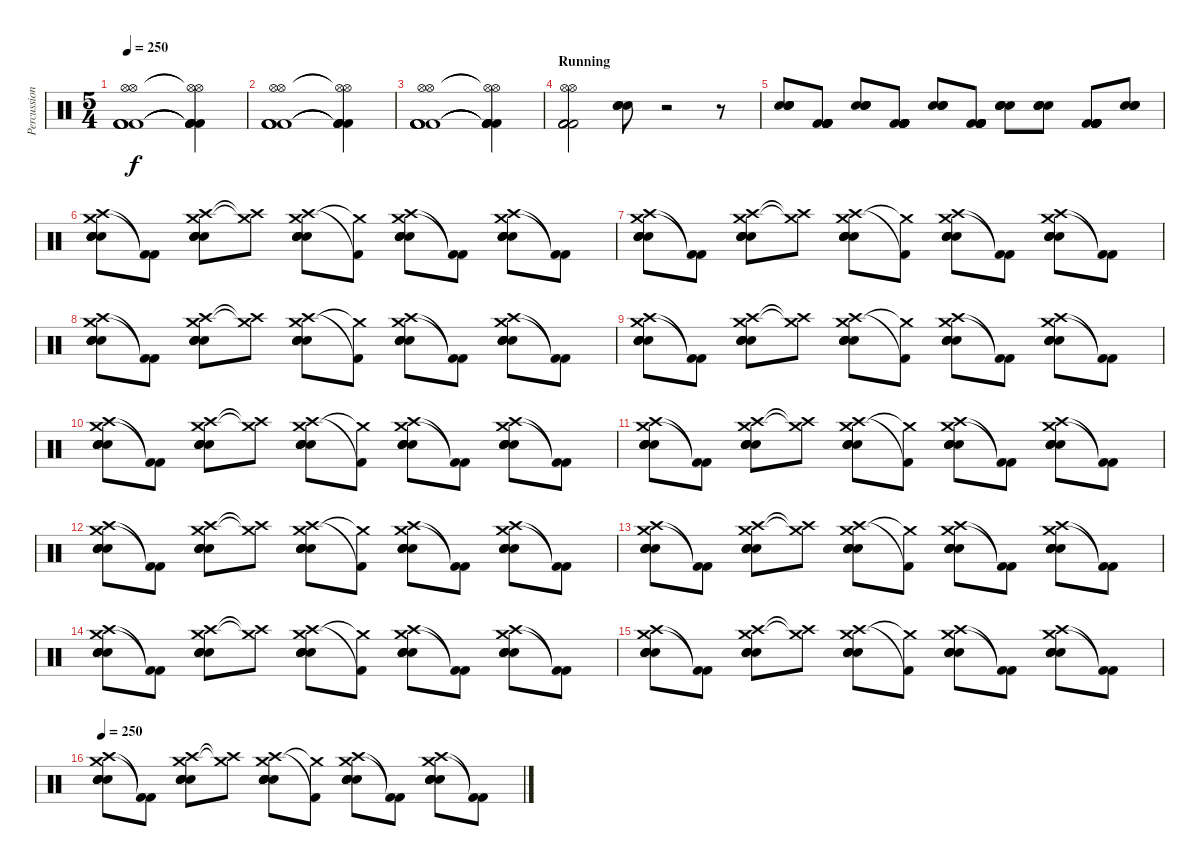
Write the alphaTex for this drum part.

\track ("Percussion" "Percussion") {instrument percussion}
\staff {score}
\articulation defaults
\ts (5 4)
\tempo 250
\clef neutral
\ks c
("Hi-Hat (open)" "Hi-Hat (open)" "Kick (hit) 2" "Kick (hit) 2" "Kick (hit) 2" "Kick (hit) 2").1{dy f} ("Hi-Hat (open)"{t} "Hi-Hat (open)"{t} "Kick (hit) 2"{t} "Kick (hit) 2"{t} "Kick (hit) 2"{t} "Kick (hit) 2"{t}).4 |
("Hi-Hat (open)" "Hi-Hat (open)" "Kick (hit) 2" "Kick (hit) 2" "Kick (hit) 2" "Kick (hit) 2").1 ("Hi-Hat (open)"{t} "Hi-Hat (open)"{t} "Kick (hit) 2"{t} "Kick (hit) 2"{t} "Kick (hit) 2"{t} "Kick (hit) 2"{t}).4 |
("Hi-Hat (open)" "Hi-Hat (open)" "Kick (hit) 2" "Kick (hit) 2" "Kick (hit) 2" "Kick (hit) 2").1 ("Hi-Hat (open)"{t} "Hi-Hat (open)"{t} "Kick (hit) 2"{t} "Kick (hit) 2"{t} "Kick (hit) 2"{t} "Kick (hit) 2"{t}).4 |
\section ("" "Running")
("Hi-Hat (open)" "Hi-Hat (open)" "Kick (hit) 2" "Kick (hit) 2" "Kick (hit) 2" "Kick (hit) 2").2 ("Snare (hit) 2" "Snare (hit) 2" "Snare (hit) 2" "Snare (hit) 2").8 r.2 r.8 |
("Snare (hit) 2" "Snare (hit) 2" "Snare (hit) 2" "Snare (hit) 2").8 ("Kick (hit) 2" "Kick (hit) 2" "Kick (hit) 2" "Kick (hit) 2" "Kick (hit) 2" "Kick (hit) 2").8 ("Snare (hit) 2" "Snare (hit) 2" "Snare (hit) 2" "Snare (hit) 2").8 ("Kick (hit) 2" "Kick (hit) 2" "Kick (hit) 2" "Kick (hit) 2" "Kick (hit) 2" "Kick (hit) 2").8 ("Snare (hit) 2" "Snare (hit) 2" "Snare (hit) 2" "Snare (hit) 2").8 ("Kick (hit) 2" "Kick (hit) 2" "Kick (hit) 2" "Kick (hit) 2" "Kick (hit) 2" "Kick (hit) 2").8 ("Snare (hit) 2" "Snare (hit) 2" "Snare (hit) 2" "Snare (hit) 2").8 ("Snare (hit) 2" "Snare (hit) 2" "Snare (hit) 2" "Snare (hit) 2").8 ("Kick (hit) 2" "Kick (hit) 2" "Kick (hit) 2" "Kick (hit) 2" "Kick (hit) 2" "Kick (hit) 2").8 ("Snare (hit) 2" "Snare (hit) 2" "Snare (hit) 2" "Snare (hit) 2").8 |
("Crash high (hit)" "Crash medium (hit)" "Snare (hit) 2" "Snare (hit) 2" "Snare (hit) 2" "Snare (hit) 2").8 ("Kick (hit) 2"{t} "Kick (hit) 2"{t}).8 ("Crash high (hit)" "Crash medium (hit)" "Snare (hit) 2" "Snare (hit) 2" "Snare (hit) 2" "Snare (hit) 2").8 ("Crash high (hit)"{t} "Crash medium (hit)"{t}).8 ("Crash high (hit)" "Crash medium (hit)" "Snare (hit) 2" "Snare (hit) 2" "Snare (hit) 2" "Snare (hit) 2").8 ("Kick (hit) 2"{t} "Crash medium (hit)"{t}).8 ("Crash high (hit)" "Crash medium (hit)" "Snare (hit) 2" "Snare (hit) 2" "Snare (hit) 2" "Snare (hit) 2").8 ("Kick (hit) 2"{t} "Kick (hit) 2"{t}).8 ("Crash high (hit)" "Crash medium (hit)" "Snare (hit) 2" "Snare (hit) 2" "Snare (hit) 2" "Snare (hit) 2").8 ("Kick (hit) 2"{t} "Kick (hit) 2"{t}).8 |
("Crash high (hit)" "Crash medium (hit)" "Snare (hit) 2" "Snare (hit) 2" "Snare (hit) 2" "Snare (hit) 2").8 ("Kick (hit) 2"{t} "Kick (hit) 2"{t}).8 ("Crash high (hit)" "Crash medium (hit)" "Snare (hit) 2" "Snare (hit) 2" "Snare (hit) 2" "Snare (hit) 2").8 ("Crash high (hit)"{t} "Crash medium (hit)"{t}).8 ("Crash high (hit)" "Crash medium (hit)" "Snare (hit) 2" "Snare (hit) 2" "Snare (hit) 2" "Snare (hit) 2").8 ("Kick (hit) 2"{t} "Crash medium (hit)"{t}).8 ("Crash high (hit)" "Crash medium (hit)" "Snare (hit) 2" "Snare (hit) 2" "Snare (hit) 2" "Snare (hit) 2").8 ("Kick (hit) 2"{t} "Kick (hit) 2"{t}).8 ("Crash high (hit)" "Crash medium (hit)" "Snare (hit) 2" "Snare (hit) 2" "Snare (hit) 2" "Snare (hit) 2").8 ("Kick (hit) 2"{t} "Kick (hit) 2"{t}).8 |
("Crash high (hit)" "Crash medium (hit)" "Snare (hit) 2" "Snare (hit) 2" "Snare (hit) 2" "Snare (hit) 2").8 ("Kick (hit) 2"{t} "Kick (hit) 2"{t}).8 ("Crash high (hit)" "Crash medium (hit)" "Snare (hit) 2" "Snare (hit) 2" "Snare (hit) 2" "Snare (hit) 2").8 ("Crash high (hit)"{t} "Crash medium (hit)"{t}).8 ("Crash high (hit)" "Crash medium (hit)" "Snare (hit) 2" "Snare (hit) 2" "Snare (hit) 2" "Snare (hit) 2").8 ("Kick (hit) 2"{t} "Crash medium (hit)"{t}).8 ("Crash high (hit)" "Crash medium (hit)" "Snare (hit) 2" "Snare (hit) 2" "Snare (hit) 2" "Snare (hit) 2").8 ("Kick (hit) 2"{t} "Kick (hit) 2"{t}).8 ("Crash high (hit)" "Crash medium (hit)" "Snare (hit) 2" "Snare (hit) 2" "Snare (hit) 2" "Snare (hit) 2").8 ("Kick (hit) 2"{t} "Kick (hit) 2"{t}).8 |
("Crash high (hit)" "Crash medium (hit)" "Snare (hit) 2" "Snare (hit) 2" "Snare (hit) 2" "Snare (hit) 2").8 ("Kick (hit) 2"{t} "Kick (hit) 2"{t}).8 ("Crash high (hit)" "Crash medium (hit)" "Snare (hit) 2" "Snare (hit) 2" "Snare (hit) 2" "Snare (hit) 2").8 ("Crash high (hit)"{t} "Crash medium (hit)"{t}).8 ("Crash high (hit)" "Crash medium (hit)" "Snare (hit) 2" "Snare (hit) 2" "Snare (hit) 2" "Snare (hit) 2").8 ("Kick (hit) 2"{t} "Crash medium (hit)"{t}).8 ("Crash high (hit)" "Crash medium (hit)" "Snare (hit) 2" "Snare (hit) 2" "Snare (hit) 2" "Snare (hit) 2").8 ("Kick (hit) 2"{t} "Kick (hit) 2"{t}).8 ("Crash high (hit)" "Crash medium (hit)" "Snare (hit) 2" "Snare (hit) 2" "Snare (hit) 2" "Snare (hit) 2").8 ("Kick (hit) 2"{t} "Kick (hit) 2"{t}).8 |
("Crash high (hit)" "Crash medium (hit)" "Snare (hit) 2" "Snare (hit) 2" "Snare (hit) 2" "Snare (hit) 2").8 ("Kick (hit) 2"{t} "Kick (hit) 2"{t}).8 ("Crash high (hit)" "Crash medium (hit)" "Snare (hit) 2" "Snare (hit) 2" "Snare (hit) 2" "Snare (hit) 2").8 ("Crash high (hit)"{t} "Crash medium (hit)"{t}).8 ("Crash high (hit)" "Crash medium (hit)" "Snare (hit) 2" "Snare (hit) 2" "Snare (hit) 2" "Snare (hit) 2").8 ("Kick (hit) 2"{t} "Crash medium (hit)"{t}).8 ("Crash high (hit)" "Crash medium (hit)" "Snare (hit) 2" "Snare (hit) 2" "Snare (hit) 2" "Snare (hit) 2").8 ("Kick (hit) 2"{t} "Kick (hit) 2"{t}).8 ("Crash high (hit)" "Crash medium (hit)" "Snare (hit) 2" "Snare (hit) 2" "Snare (hit) 2" "Snare (hit) 2").8 ("Kick (hit) 2"{t} "Kick (hit) 2"{t}).8 |
("Crash high (hit)" "Crash medium (hit)" "Snare (hit) 2" "Snare (hit) 2" "Snare (hit) 2" "Snare (hit) 2").8 ("Kick (hit) 2"{t} "Kick (hit) 2"{t}).8 ("Crash high (hit)" "Crash medium (hit)" "Snare (hit) 2" "Snare (hit) 2" "Snare (hit) 2" "Snare (hit) 2").8 ("Crash high (hit)"{t} "Crash medium (hit)"{t}).8 ("Crash high (hit)" "Crash medium (hit)" "Snare (hit) 2" "Snare (hit) 2" "Snare (hit) 2" "Snare (hit) 2").8 ("Kick (hit) 2"{t} "Crash medium (hit)"{t}).8 ("Crash high (hit)" "Crash medium (hit)" "Snare (hit) 2" "Snare (hit) 2" "Snare (hit) 2" "Snare (hit) 2").8 ("Kick (hit) 2"{t} "Kick (hit) 2"{t}).8 ("Crash high (hit)" "Crash medium (hit)" "Snare (hit) 2" "Snare (hit) 2" "Snare (hit) 2" "Snare (hit) 2").8 ("Kick (hit) 2"{t} "Kick (hit) 2"{t}).8 |
("Crash high (hit)" "Crash medium (hit)" "Snare (hit) 2" "Snare (hit) 2" "Snare (hit) 2" "Snare (hit) 2").8 ("Kick (hit) 2"{t} "Kick (hit) 2"{t}).8 ("Crash high (hit)" "Crash medium (hit)" "Snare (hit) 2" "Snare (hit) 2" "Snare (hit) 2" "Snare (hit) 2").8 ("Crash high (hit)"{t} "Crash medium (hit)"{t}).8 ("Crash high (hit)" "Crash medium (hit)" "Snare (hit) 2" "Snare (hit) 2" "Snare (hit) 2" "Snare (hit) 2").8 ("Kick (hit) 2"{t} "Crash medium (hit)"{t}).8 ("Crash high (hit)" "Crash medium (hit)" "Snare (hit) 2" "Snare (hit) 2" "Snare (hit) 2" "Snare (hit) 2").8 ("Kick (hit) 2"{t} "Kick (hit) 2"{t}).8 ("Crash high (hit)" "Crash medium (hit)" "Snare (hit) 2" "Snare (hit) 2" "Snare (hit) 2" "Snare (hit) 2").8 ("Kick (hit) 2"{t} "Kick (hit) 2"{t}).8 |
("Crash high (hit)" "Crash medium (hit)" "Snare (hit) 2" "Snare (hit) 2" "Snare (hit) 2" "Snare (hit) 2").8 ("Kick (hit) 2"{t} "Kick (hit) 2"{t}).8 ("Crash high (hit)" "Crash medium (hit)" "Snare (hit) 2" "Snare (hit) 2" "Snare (hit) 2" "Snare (hit) 2").8 ("Crash high (hit)"{t} "Crash medium (hit)"{t}).8 ("Crash high (hit)" "Crash medium (hit)" "Snare (hit) 2" "Snare (hit) 2" "Snare (hit) 2" "Snare (hit) 2").8 ("Kick (hit) 2"{t} "Crash medium (hit)"{t}).8 ("Crash high (hit)" "Crash medium (hit)" "Snare (hit) 2" "Snare (hit) 2" "Snare (hit) 2" "Snare (hit) 2").8 ("Kick (hit) 2"{t} "Kick (hit) 2"{t}).8 ("Crash high (hit)" "Crash medium (hit)" "Snare (hit) 2" "Snare (hit) 2" "Snare (hit) 2" "Snare (hit) 2").8 ("Kick (hit) 2"{t} "Kick (hit) 2"{t}).8 |
("Crash high (hit)" "Crash medium (hit)" "Snare (hit) 2" "Snare (hit) 2" "Snare (hit) 2" "Snare (hit) 2").8 ("Kick (hit) 2"{t} "Kick (hit) 2"{t}).8 ("Crash high (hit)" "Crash medium (hit)" "Snare (hit) 2" "Snare (hit) 2" "Snare (hit) 2" "Snare (hit) 2").8 ("Crash high (hit)"{t} "Crash medium (hit)"{t}).8 ("Crash high (hit)" "Crash medium (hit)" "Snare (hit) 2" "Snare (hit) 2" "Snare (hit) 2" "Snare (hit) 2").8 ("Kick (hit) 2"{t} "Crash medium (hit)"{t}).8 ("Crash high (hit)" "Crash medium (hit)" "Snare (hit) 2" "Snare (hit) 2" "Snare (hit) 2" "Snare (hit) 2").8 ("Kick (hit) 2"{t} "Kick (hit) 2"{t}).8 ("Crash high (hit)" "Crash medium (hit)" "Snare (hit) 2" "Snare (hit) 2" "Snare (hit) 2" "Snare (hit) 2").8 ("Kick (hit) 2"{t} "Kick (hit) 2"{t}).8 |
("Crash high (hit)" "Crash medium (hit)" "Snare (hit) 2" "Snare (hit) 2" "Snare (hit) 2" "Snare (hit) 2").8 ("Kick (hit) 2"{t} "Kick (hit) 2"{t}).8 ("Crash high (hit)" "Crash medium (hit)" "Snare (hit) 2" "Snare (hit) 2" "Snare (hit) 2" "Snare (hit) 2").8 ("Crash high (hit)"{t} "Crash medium (hit)"{t}).8 ("Crash high (hit)" "Crash medium (hit)" "Snare (hit) 2" "Snare (hit) 2" "Snare (hit) 2" "Snare (hit) 2").8 ("Kick (hit) 2"{t} "Crash medium (hit)"{t}).8 ("Crash high (hit)" "Crash medium (hit)" "Snare (hit) 2" "Snare (hit) 2" "Snare (hit) 2" "Snare (hit) 2").8 ("Kick (hit) 2"{t} "Kick (hit) 2"{t}).8 ("Crash high (hit)" "Crash medium (hit)" "Snare (hit) 2" "Snare (hit) 2" "Snare (hit) 2" "Snare (hit) 2").8 ("Kick (hit) 2"{t} "Kick (hit) 2"{t}).8 |
\tempo 250
("Crash high (hit)" "Crash medium (hit)" "Snare (hit) 2" "Snare (hit) 2" "Snare (hit) 2" "Snare (hit) 2").8 ("Kick (hit) 2"{t} "Kick (hit) 2"{t}).8 ("Crash high (hit)" "Crash medium (hit)" "Snare (hit) 2" "Snare (hit) 2" "Snare (hit) 2" "Snare (hit) 2").8 ("Crash high (hit)"{t} "Crash medium (hit)"{t}).8 ("Crash high (hit)" "Crash medium (hit)" "Snare (hit) 2" "Snare (hit) 2" "Snare (hit) 2" "Snare (hit) 2").8 ("Kick (hit) 2"{t} "Crash medium (hit)"{t}).8 ("Crash high (hit)" "Crash medium (hit)" "Snare (hit) 2" "Snare (hit) 2" "Snare (hit) 2" "Snare (hit) 2").8 ("Kick (hit) 2"{t} "Kick (hit) 2"{t}).8 ("Crash high (hit)" "Crash medium (hit)" "Snare (hit) 2" "Snare (hit) 2" "Snare (hit) 2" "Snare (hit) 2").8 ("Kick (hit) 2"{t} "Kick (hit) 2"{t}).8
